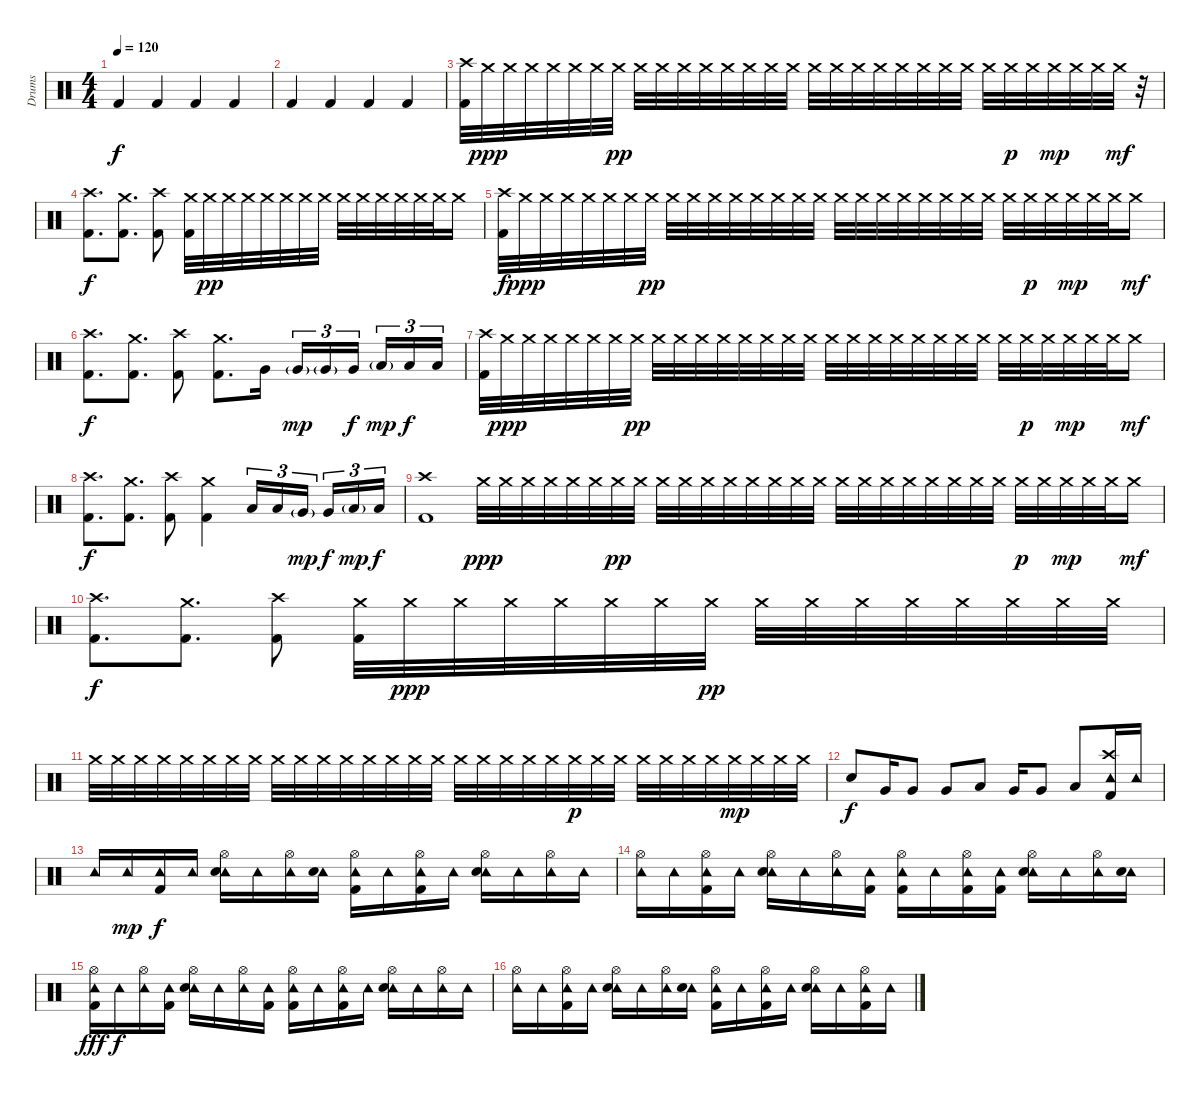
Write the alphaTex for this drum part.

\track ("Drums" "Drums") {instrument percussion}
\staff {score}
\articulation defaults
\ts (4 4)
\tempo 120
\clef neutral
\ks c "Kick (hit) 2".4{dy f} "Kick (hit) 2".4 "Kick (hit) 2".4 "Kick (hit) 2".4
|
"Kick (hit) 2".4 "Kick (hit) 2".4 "Kick (hit) 2".4 "Kick (hit) 2".4 |
("Crash high (hit)" "Kick (hit) 2").32 "Crash medium (hit)".32{dy ppp} "Crash medium (hit)".32 "Crash medium (hit)".32 "Crash medium (hit)".32 "Crash medium (hit)".32 "Crash medium (hit)".32 "Crash medium (hit)".32{dy pp} "Crash medium (hit)".32 "Crash medium (hit)".32 "Crash medium (hit)".32 "Crash medium (hit)".32 "Crash medium (hit)".32 "Crash medium (hit)".32 "Crash medium (hit)".32 "Crash medium (hit)".32 "Crash medium (hit)".32 "Crash medium (hit)".32 "Crash medium (hit)".32 "Crash medium (hit)".32 "Crash medium (hit)".32 "Crash medium (hit)".32 "Crash medium (hit)".32 "Crash medium (hit)".32 "Crash medium (hit)".32 "Crash medium (hit)".32{dy p} "Crash medium (hit)".32 "Crash medium (hit)".32{dy mp} "Crash medium (hit)".32 "Crash medium (hit)".32 "Crash medium (hit)".32{dy mf} r.32 |
("Crash high (hit)" "Kick (hit) 2").8{d dy f} ("Crash medium (hit)" "Kick (hit) 2").8{d} ("Crash high (hit)" "Kick (hit) 2").8 ("Crash medium (hit)" "Kick (hit) 2").32 "Crash medium (hit)".32{dy pp} "Crash medium (hit)".32 "Crash medium (hit)".32 "Crash medium (hit)".32 "Crash medium (hit)".32 "Crash medium (hit)".32 "Crash medium (hit)".32 "Crash medium (hit)".32 "Crash medium (hit)".32 "Crash medium (hit)".32 "Crash medium (hit)".32 "Crash medium (hit)".32 "Crash medium (hit)".32 "Crash medium (hit)".16 |
("Crash high (hit)" "Kick (hit) 2").32{dy f} "Crash medium (hit)".32{dy ppp} "Crash medium (hit)".32 "Crash medium (hit)".32 "Crash medium (hit)".32 "Crash medium (hit)".32 "Crash medium (hit)".32 "Crash medium (hit)".32{dy pp} "Crash medium (hit)".32 "Crash medium (hit)".32 "Crash medium (hit)".32 "Crash medium (hit)".32 "Crash medium (hit)".32 "Crash medium (hit)".32 "Crash medium (hit)".32 "Crash medium (hit)".32 "Crash medium (hit)".32 "Crash medium (hit)".32 "Crash medium (hit)".32 "Crash medium (hit)".32 "Crash medium (hit)".32 "Crash medium (hit)".32 "Crash medium (hit)".32 "Crash medium (hit)".32 "Crash medium (hit)".32 "Crash medium (hit)".32{dy p} "Crash medium (hit)".32 "Crash medium (hit)".32{dy mp} "Crash medium (hit)".32 "Crash medium (hit)".32 "Crash medium (hit)".16{dy mf} |
("Crash high (hit)" "Kick (hit) 2").8{d dy f} ("Crash medium (hit)" "Kick (hit) 2").8{d} ("Crash high (hit)" "Kick (hit) 2").8 ("Crash medium (hit)" "Kick (hit) 2").8{d} "Very Low Tom (hit)".16 "Very Low Tom (hit)"{g}.16{tu (3 2) dy mp} "Very Low Tom (hit)"{g}.16{tu (3 2)} "Very Low Tom (hit)".16{tu (3 2) dy f beam splitsecondary} "Low Floor Tom (hit)"{g}.16{tu (3 2) dy mp} "Low Floor Tom (hit)".16{tu (3 2) dy f} "Low Floor Tom (hit)".16{tu (3 2)} |
("Crash high (hit)" "Kick (hit) 2").32 "Crash medium (hit)".32{dy ppp} "Crash medium (hit)".32 "Crash medium (hit)".32 "Crash medium (hit)".32 "Crash medium (hit)".32 "Crash medium (hit)".32 "Crash medium (hit)".32{dy pp} "Crash medium (hit)".32 "Crash medium (hit)".32 "Crash medium (hit)".32 "Crash medium (hit)".32 "Crash medium (hit)".32 "Crash medium (hit)".32 "Crash medium (hit)".32 "Crash medium (hit)".32 "Crash medium (hit)".32 "Crash medium (hit)".32 "Crash medium (hit)".32 "Crash medium (hit)".32 "Crash medium (hit)".32 "Crash medium (hit)".32 "Crash medium (hit)".32 "Crash medium (hit)".32 "Crash medium (hit)".32 "Crash medium (hit)".32{dy p} "Crash medium (hit)".32 "Crash medium (hit)".32{dy mp} "Crash medium (hit)".32 "Crash medium (hit)".32 "Crash medium (hit)".16{dy mf} |
("Crash high (hit)" "Kick (hit) 2").8{d dy f} ("Crash medium (hit)" "Kick (hit) 2").8{d} ("Crash high (hit)" "Kick (hit) 2").8 ("Crash medium (hit)" "Kick (hit) 2").4 "Low Tom (hit)".16{tu (3 2)} "Low Tom (hit)".16{tu (3 2)} "Very Low Tom (hit)"{g}.16{tu (3 2) dy mp beam splitsecondary} "Very Low Tom (hit)".16{tu (3 2) dy f} "Low Floor Tom (hit)"{g}.16{tu (3 2) dy mp} "Low Floor Tom (hit)".16{tu (3 2) dy f} |
("Crash high (hit)" "Kick (hit) 2").1 "Crash medium (hit)".32{dy ppp} "Crash medium (hit)".32 "Crash medium (hit)".32 "Crash medium (hit)".32 "Crash medium (hit)".32 "Crash medium (hit)".32 "Crash medium (hit)".32{dy pp} "Crash medium (hit)".32 "Crash medium (hit)".32 "Crash medium (hit)".32 "Crash medium (hit)".32 "Crash medium (hit)".32 "Crash medium (hit)".32 "Crash medium (hit)".32 "Crash medium (hit)".32 "Crash medium (hit)".32 "Crash medium (hit)".32 "Crash medium (hit)".32 "Crash medium (hit)".32 "Crash medium (hit)".32 "Crash medium (hit)".32 "Crash medium (hit)".32 "Crash medium (hit)".32 "Crash medium (hit)".32 "Crash medium (hit)".32{dy p} "Crash medium (hit)".32 "Crash medium (hit)".32{dy mp} "Crash medium (hit)".32 "Crash medium (hit)".32 "Crash medium (hit)".16{dy mf} |
("Crash high (hit)" "Kick (hit) 2").8{d dy f} ("Crash medium (hit)" "Kick (hit) 2").8{d} ("Crash high (hit)" "Kick (hit) 2").8 ("Crash medium (hit)" "Kick (hit) 2").32 "Crash medium (hit)".32{dy ppp} "Crash medium (hit)".32 "Crash medium (hit)".32 "Crash medium (hit)".32 "Crash medium (hit)".32 "Crash medium (hit)".32 "Crash medium (hit)".32{dy pp} "Crash medium (hit)".32 "Crash medium (hit)".32 "Crash medium (hit)".32 "Crash medium (hit)".32 "Crash medium (hit)".32 "Crash medium (hit)".32 "Crash medium (hit)".32 "Crash medium (hit)".32 |
"Crash medium (hit)".32 "Crash medium (hit)".32 "Crash medium (hit)".32 "Crash medium (hit)".32 "Crash medium (hit)".32 "Crash medium (hit)".32 "Crash medium (hit)".32 "Crash medium (hit)".32 "Crash medium (hit)".32 "Crash medium (hit)".32 "Crash medium (hit)".32 "Crash medium (hit)".32 "Crash medium (hit)".32 "Crash medium (hit)".32 "Crash medium (hit)".32 "Crash medium (hit)".32 "Crash medium (hit)".32 "Crash medium (hit)".32 "Crash medium (hit)".32 "Crash medium (hit)".32 "Crash medium (hit)".32 "Crash medium (hit)".32{dy p} "Crash medium (hit)".32 "Crash medium (hit)".32 "Crash medium (hit)".32 "Crash medium (hit)".32 "Crash medium (hit)".32 "Crash medium (hit)".32 "Crash medium (hit)".32{dy mp} "Crash medium (hit)".32 "Crash medium (hit)".32 "Crash medium (hit)".32 |
"Electric Snare (hit)".8{dy f} "Very Low Tom (hit)".16 "Very Low Tom (hit)".8 "Very Low Tom (hit)".8 "Low Floor Tom (hit)".8 "Very Low Tom (hit)".16 "Very Low Tom (hit)".8 "Low Floor Tom (hit)".8 ("Crash high (hit)" "Tambourine (hit)" "Kick (hit) 2").16 "Tambourine (hit)".16 |
"Tambourine (hit)".16 "Tambourine (hit)".16{dy mp} ("Tambourine (hit)" "Kick (hit) 2").16{dy f} "Tambourine (hit)".16 ("Tambourine (hit)" "Hi-Hat (open)" "Electric Snare (hit)").16 "Tambourine (hit)".16 ("Tambourine (hit)" "Hi-Hat (open)").16 ("Tambourine (hit)" "Electric Snare (hit)").16 ("Tambourine (hit)" "Hi-Hat (open)" "Kick (hit) 2").16 "Tambourine (hit)".16 ("Tambourine (hit)" "Hi-Hat (open)" "Kick (hit) 2").16 "Tambourine (hit)".16 ("Tambourine (hit)" "Hi-Hat (open)" "Electric Snare (hit)").16 "Tambourine (hit)".16 ("Tambourine (hit)" "Hi-Hat (open)").16 "Tambourine (hit)".16 |
("Tambourine (hit)" "Hi-Hat (open)").16 "Tambourine (hit)".16 ("Tambourine (hit)" "Hi-Hat (open)" "Kick (hit) 2").16 "Tambourine (hit)".16 ("Tambourine (hit)" "Hi-Hat (open)" "Electric Snare (hit)").16 "Tambourine (hit)".16 ("Tambourine (hit)" "Hi-Hat (open)").16 ("Tambourine (hit)" "Kick (hit) 2").16 ("Tambourine (hit)" "Hi-Hat (open)" "Kick (hit) 2").16 "Tambourine (hit)".16 ("Tambourine (hit)" "Hi-Hat (open)" "Kick (hit) 2").16 ("Tambourine (hit)" "Kick (hit) 2").16 ("Tambourine (hit)" "Hi-Hat (open)" "Electric Snare (hit)").16 "Tambourine (hit)".16 ("Tambourine (hit)" "Hi-Hat (open)").16 ("Tambourine (hit)" "Electric Snare (hit)").16 |
("Tambourine (hit)" "Hi-Hat (open)" "Kick (hit) 2").16{dy fff} "Tambourine (hit)".16{dy f} ("Tambourine (hit)" "Hi-Hat (open)").16 ("Tambourine (hit)" "Kick (hit) 2").16 ("Tambourine (hit)" "Hi-Hat (open)" "Electric Snare (hit)").16 "Tambourine (hit)".16 ("Tambourine (hit)" "Hi-Hat (open)").16 ("Tambourine (hit)" "Kick (hit) 2").16 ("Tambourine (hit)" "Hi-Hat (open)" "Kick (hit) 2").16 "Tambourine (hit)".16 ("Tambourine (hit)" "Hi-Hat (open)" "Kick (hit) 2").16 "Tambourine (hit)".16 ("Tambourine (hit)" "Hi-Hat (open)" "Electric Snare (hit)").16 "Tambourine (hit)".16 ("Tambourine (hit)" "Hi-Hat (open)").16 "Tambourine (hit)".16 |
("Tambourine (hit)" "Hi-Hat (open)").16 "Tambourine (hit)".16 ("Tambourine (hit)" "Hi-Hat (open)" "Kick (hit) 2").16 "Tambourine (hit)".16 ("Tambourine (hit)" "Hi-Hat (open)" "Electric Snare (hit)").16 "Tambourine (hit)".16 ("Tambourine (hit)" "Hi-Hat (open)").16 ("Tambourine (hit)" "Electric Snare (hit)").16 ("Tambourine (hit)" "Hi-Hat (open)" "Kick (hit) 2").16 "Tambourine (hit)".16 ("Tambourine (hit)" "Hi-Hat (open)" "Kick (hit) 2").16 "Tambourine (hit)".16 ("Tambourine (hit)" "Hi-Hat (open)" "Electric Snare (hit)").16 "Tambourine (hit)".16 ("Tambourine (hit)" "Hi-Hat (open)" "Kick (hit) 2").16 "Tambourine (hit)".16
